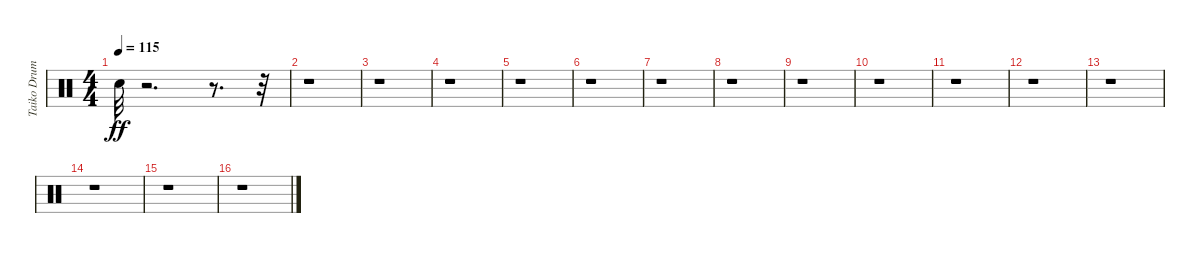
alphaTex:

\track ("Taiko Drums" "Taiko Drum") {instrument percussion}
\staff {score}
\articulation defaults
\ts (4 4)
\tempo 115
\clef neutral
\ks c "Snare (hit)".32{dy ff}
r.2{d} r.8{d} r.32 |
r.1 |
r.1 |
r.1 |
r.1 |
r.1 |
r.1 |
r.1 |
r.1 |
r.1 |
r.1 |
r.1 |
r.1 |
r.1 |
r.1 |
r.1
